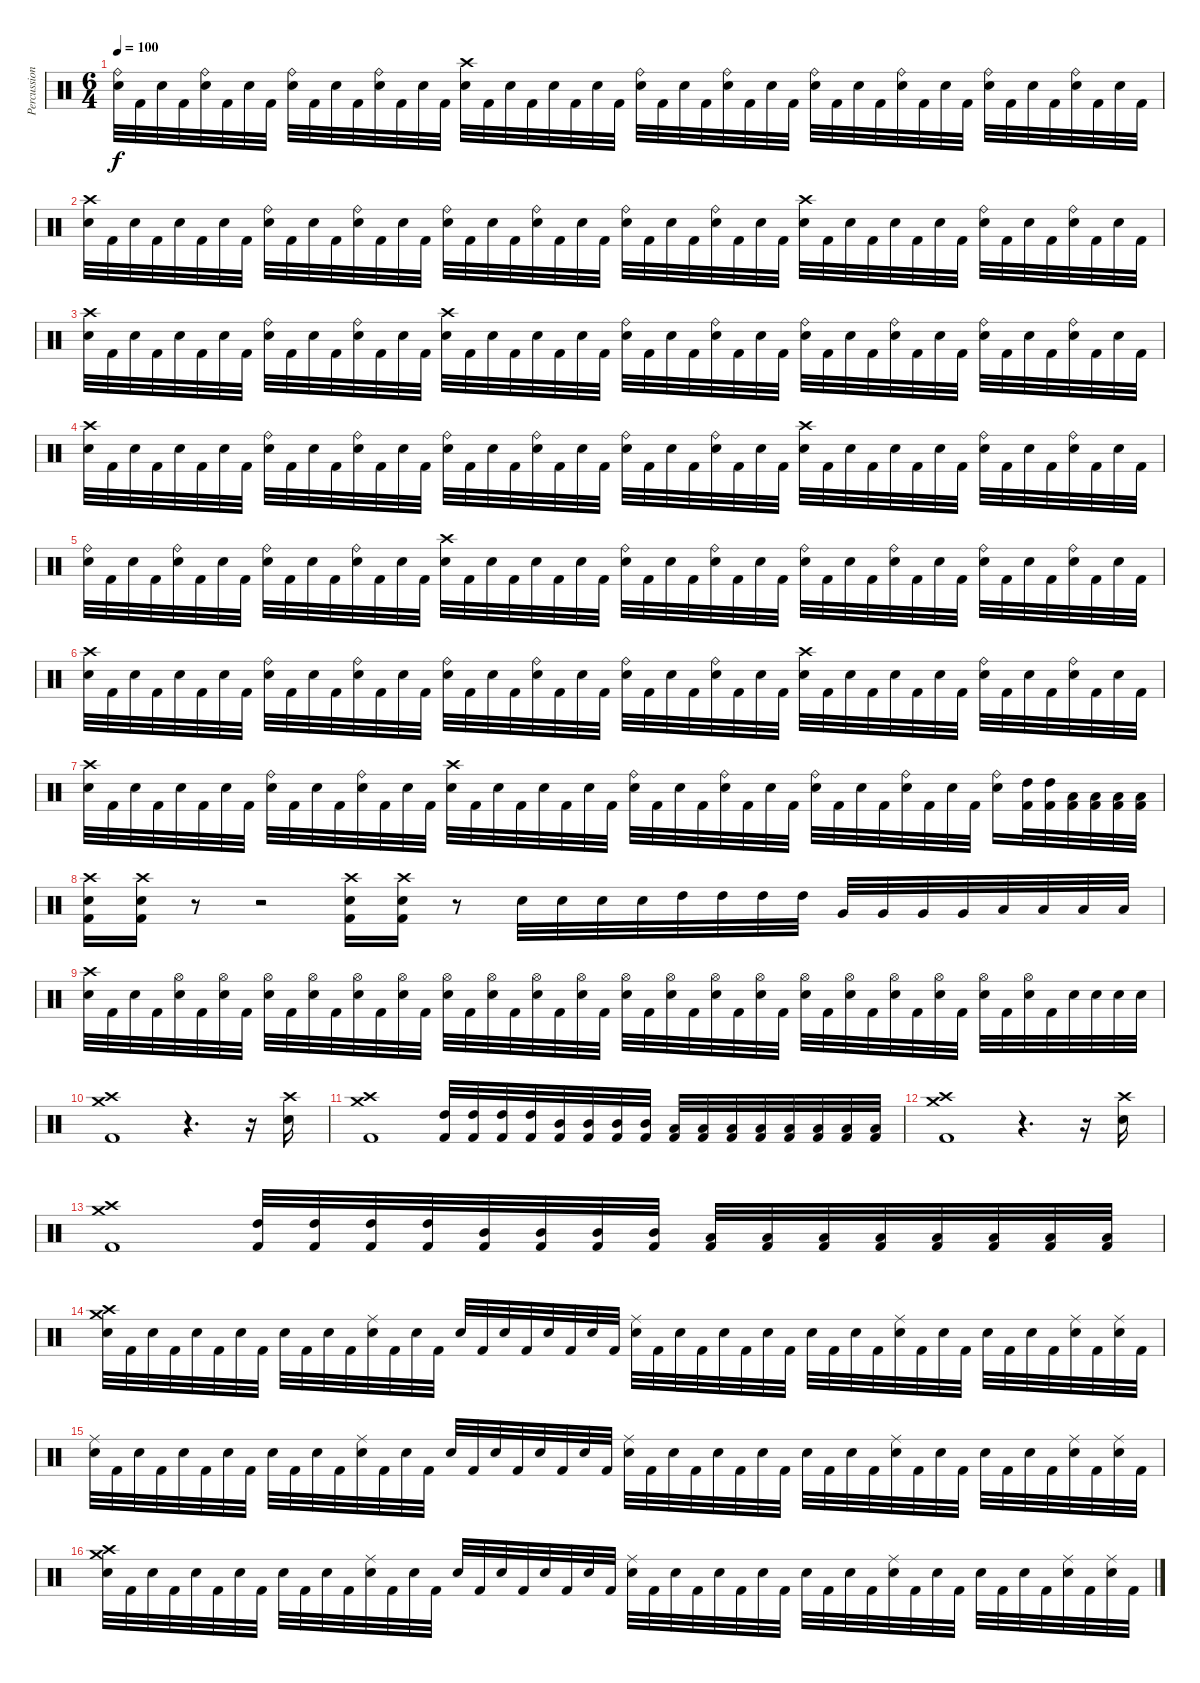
\track ("Percussion" "Percussion") {instrument percussion}
\staff {score}
\articulation defaults
\ts (6 4)
\tempo 100
\clef neutral
\ks c
("Ride (bell)" "Electric Snare (hit)").32{dy f} "Kick (hit) 2".32 "Electric Snare (hit)".32 "Kick (hit) 2".32 ("Ride (bell)" "Electric Snare (hit)").32 "Kick (hit) 2".32 "Electric Snare (hit)".32 "Kick (hit) 2".32 ("Ride (bell)" "Electric Snare (hit)").32 "Kick (hit) 2".32 "Electric Snare (hit)".32 "Kick (hit) 2".32 ("Ride (bell)" "Electric Snare (hit)").32 "Kick (hit) 2".32 "Electric Snare (hit)".32 "Kick (hit) 2".32 ("Crash high (hit)" "Electric Snare (hit)").32 "Kick (hit) 2".32 "Electric Snare (hit)".32 "Kick (hit) 2".32 "Electric Snare (hit)".32 "Kick (hit) 2".32 "Electric Snare (hit)".32 "Kick (hit) 2".32 ("Ride (bell)" "Electric Snare (hit)").32 "Kick (hit) 2".32 "Electric Snare (hit)".32 "Kick (hit) 2".32 ("Ride (bell)" "Electric Snare (hit)").32 "Kick (hit) 2".32 "Electric Snare (hit)".32 "Kick (hit) 2".32 ("Ride (bell)" "Electric Snare (hit)").32 "Kick (hit) 2".32 "Electric Snare (hit)".32 "Kick (hit) 2".32 ("Ride (bell)" "Electric Snare (hit)").32 "Kick (hit) 2".32 "Electric Snare (hit)".32 "Kick (hit) 2".32 ("Ride (bell)" "Electric Snare (hit)").32 "Kick (hit) 2".32 "Electric Snare (hit)".32 "Kick (hit) 2".32 ("Ride (bell)" "Electric Snare (hit)").32 "Kick (hit) 2".32 "Electric Snare (hit)".32 "Kick (hit) 2".32 |
("Crash high (hit)" "Electric Snare (hit)").32 "Kick (hit) 2".32 "Electric Snare (hit)".32 "Kick (hit) 2".32 "Electric Snare (hit)".32 "Kick (hit) 2".32 "Electric Snare (hit)".32 "Kick (hit) 2".32 ("Ride (bell)" "Electric Snare (hit)").32 "Kick (hit) 2".32 "Electric Snare (hit)".32 "Kick (hit) 2".32 ("Ride (bell)" "Electric Snare (hit)").32 "Kick (hit) 2".32 "Electric Snare (hit)".32 "Kick (hit) 2".32 ("Ride (bell)" "Electric Snare (hit)").32 "Kick (hit) 2".32 "Electric Snare (hit)".32 "Kick (hit) 2".32 ("Ride (bell)" "Electric Snare (hit)").32 "Kick (hit) 2".32 "Electric Snare (hit)".32 "Kick (hit) 2".32 ("Ride (bell)" "Electric Snare (hit)").32 "Kick (hit) 2".32 "Electric Snare (hit)".32 "Kick (hit) 2".32 ("Ride (bell)" "Electric Snare (hit)").32 "Kick (hit) 2".32 "Electric Snare (hit)".32 "Kick (hit) 2".32 ("Crash high (hit)" "Electric Snare (hit)").32 "Kick (hit) 2".32 "Electric Snare (hit)".32 "Kick (hit) 2".32 "Electric Snare (hit)".32 "Kick (hit) 2".32 "Electric Snare (hit)".32 "Kick (hit) 2".32 ("Ride (bell)" "Electric Snare (hit)").32 "Kick (hit) 2".32 "Electric Snare (hit)".32 "Kick (hit) 2".32 ("Ride (bell)" "Electric Snare (hit)").32 "Kick (hit) 2".32 "Electric Snare (hit)".32 "Kick (hit) 2".32 |
("Crash high (hit)" "Electric Snare (hit)").32 "Kick (hit) 2".32 "Electric Snare (hit)".32 "Kick (hit) 2".32 "Electric Snare (hit)".32 "Kick (hit) 2".32 "Electric Snare (hit)".32 "Kick (hit) 2".32 ("Ride (bell)" "Electric Snare (hit)").32 "Kick (hit) 2".32 "Electric Snare (hit)".32 "Kick (hit) 2".32 ("Ride (bell)" "Electric Snare (hit)").32 "Kick (hit) 2".32 "Electric Snare (hit)".32 "Kick (hit) 2".32 ("Crash high (hit)" "Electric Snare (hit)").32 "Kick (hit) 2".32 "Electric Snare (hit)".32 "Kick (hit) 2".32 "Electric Snare (hit)".32 "Kick (hit) 2".32 "Electric Snare (hit)".32 "Kick (hit) 2".32 ("Ride (bell)" "Electric Snare (hit)").32 "Kick (hit) 2".32 "Electric Snare (hit)".32 "Kick (hit) 2".32 ("Ride (bell)" "Electric Snare (hit)").32 "Kick (hit) 2".32 "Electric Snare (hit)".32 "Kick (hit) 2".32 ("Ride (bell)" "Electric Snare (hit)").32 "Kick (hit) 2".32 "Electric Snare (hit)".32 "Kick (hit) 2".32 ("Ride (bell)" "Electric Snare (hit)").32 "Kick (hit) 2".32 "Electric Snare (hit)".32 "Kick (hit) 2".32 ("Ride (bell)" "Electric Snare (hit)").32 "Kick (hit) 2".32 "Electric Snare (hit)".32 "Kick (hit) 2".32 ("Ride (bell)" "Electric Snare (hit)").32 "Kick (hit) 2".32 "Electric Snare (hit)".32 "Kick (hit) 2".32 |
("Crash high (hit)" "Electric Snare (hit)").32 "Kick (hit) 2".32 "Electric Snare (hit)".32 "Kick (hit) 2".32 "Electric Snare (hit)".32 "Kick (hit) 2".32 "Electric Snare (hit)".32 "Kick (hit) 2".32 ("Ride (bell)" "Electric Snare (hit)").32 "Kick (hit) 2".32 "Electric Snare (hit)".32 "Kick (hit) 2".32 ("Ride (bell)" "Electric Snare (hit)").32 "Kick (hit) 2".32 "Electric Snare (hit)".32 "Kick (hit) 2".32 ("Ride (bell)" "Electric Snare (hit)").32 "Kick (hit) 2".32 "Electric Snare (hit)".32 "Kick (hit) 2".32 ("Ride (bell)" "Electric Snare (hit)").32 "Kick (hit) 2".32 "Electric Snare (hit)".32 "Kick (hit) 2".32 ("Ride (bell)" "Electric Snare (hit)").32 "Kick (hit) 2".32 "Electric Snare (hit)".32 "Kick (hit) 2".32 ("Ride (bell)" "Electric Snare (hit)").32 "Kick (hit) 2".32 "Electric Snare (hit)".32 "Kick (hit) 2".32 ("Crash high (hit)" "Electric Snare (hit)").32 "Kick (hit) 2".32 "Electric Snare (hit)".32 "Kick (hit) 2".32 "Electric Snare (hit)".32 "Kick (hit) 2".32 "Electric Snare (hit)".32 "Kick (hit) 2".32 ("Ride (bell)" "Electric Snare (hit)").32 "Kick (hit) 2".32 "Electric Snare (hit)".32 "Kick (hit) 2".32 ("Ride (bell)" "Electric Snare (hit)").32 "Kick (hit) 2".32 "Electric Snare (hit)".32 "Kick (hit) 2".32 |
("Ride (bell)" "Electric Snare (hit)").32 "Kick (hit) 2".32 "Electric Snare (hit)".32 "Kick (hit) 2".32 ("Ride (bell)" "Electric Snare (hit)").32 "Kick (hit) 2".32 "Electric Snare (hit)".32 "Kick (hit) 2".32 ("Ride (bell)" "Electric Snare (hit)").32 "Kick (hit) 2".32 "Electric Snare (hit)".32 "Kick (hit) 2".32 ("Ride (bell)" "Electric Snare (hit)").32 "Kick (hit) 2".32 "Electric Snare (hit)".32 "Kick (hit) 2".32 ("Crash high (hit)" "Electric Snare (hit)").32 "Kick (hit) 2".32 "Electric Snare (hit)".32 "Kick (hit) 2".32 "Electric Snare (hit)".32 "Kick (hit) 2".32 "Electric Snare (hit)".32 "Kick (hit) 2".32 ("Ride (bell)" "Electric Snare (hit)").32 "Kick (hit) 2".32 "Electric Snare (hit)".32 "Kick (hit) 2".32 ("Ride (bell)" "Electric Snare (hit)").32 "Kick (hit) 2".32 "Electric Snare (hit)".32 "Kick (hit) 2".32 ("Ride (bell)" "Electric Snare (hit)").32 "Kick (hit) 2".32 "Electric Snare (hit)".32 "Kick (hit) 2".32 ("Ride (bell)" "Electric Snare (hit)").32 "Kick (hit) 2".32 "Electric Snare (hit)".32 "Kick (hit) 2".32 ("Ride (bell)" "Electric Snare (hit)").32 "Kick (hit) 2".32 "Electric Snare (hit)".32 "Kick (hit) 2".32 ("Ride (bell)" "Electric Snare (hit)").32 "Kick (hit) 2".32 "Electric Snare (hit)".32 "Kick (hit) 2".32 |
("Crash high (hit)" "Electric Snare (hit)").32 "Kick (hit) 2".32 "Electric Snare (hit)".32 "Kick (hit) 2".32 "Electric Snare (hit)".32 "Kick (hit) 2".32 "Electric Snare (hit)".32 "Kick (hit) 2".32 ("Ride (bell)" "Electric Snare (hit)").32 "Kick (hit) 2".32 "Electric Snare (hit)".32 "Kick (hit) 2".32 ("Ride (bell)" "Electric Snare (hit)").32 "Kick (hit) 2".32 "Electric Snare (hit)".32 "Kick (hit) 2".32 ("Ride (bell)" "Electric Snare (hit)").32 "Kick (hit) 2".32 "Electric Snare (hit)".32 "Kick (hit) 2".32 ("Ride (bell)" "Electric Snare (hit)").32 "Kick (hit) 2".32 "Electric Snare (hit)".32 "Kick (hit) 2".32 ("Ride (bell)" "Electric Snare (hit)").32 "Kick (hit) 2".32 "Electric Snare (hit)".32 "Kick (hit) 2".32 ("Ride (bell)" "Electric Snare (hit)").32 "Kick (hit) 2".32 "Electric Snare (hit)".32 "Kick (hit) 2".32 ("Crash high (hit)" "Electric Snare (hit)").32 "Kick (hit) 2".32 "Electric Snare (hit)".32 "Kick (hit) 2".32 "Electric Snare (hit)".32 "Kick (hit) 2".32 "Electric Snare (hit)".32 "Kick (hit) 2".32 ("Ride (bell)" "Electric Snare (hit)").32 "Kick (hit) 2".32 "Electric Snare (hit)".32 "Kick (hit) 2".32 ("Ride (bell)" "Electric Snare (hit)").32 "Kick (hit) 2".32 "Electric Snare (hit)".32 "Kick (hit) 2".32 |
("Crash high (hit)" "Electric Snare (hit)").32 "Kick (hit) 2".32 "Electric Snare (hit)".32 "Kick (hit) 2".32 "Electric Snare (hit)".32 "Kick (hit) 2".32 "Electric Snare (hit)".32 "Kick (hit) 2".32 ("Ride (bell)" "Electric Snare (hit)").32 "Kick (hit) 2".32 "Electric Snare (hit)".32 "Kick (hit) 2".32 ("Ride (bell)" "Electric Snare (hit)").32 "Kick (hit) 2".32 "Electric Snare (hit)".32 "Kick (hit) 2".32 ("Crash high (hit)" "Electric Snare (hit)").32 "Kick (hit) 2".32 "Electric Snare (hit)".32 "Kick (hit) 2".32 "Electric Snare (hit)".32 "Kick (hit) 2".32 "Electric Snare (hit)".32 "Kick (hit) 2".32 ("Ride (bell)" "Electric Snare (hit)").32 "Kick (hit) 2".32 "Electric Snare (hit)".32 "Kick (hit) 2".32 ("Ride (bell)" "Electric Snare (hit)").32 "Kick (hit) 2".32 "Electric Snare (hit)".32 "Kick (hit) 2".32 ("Ride (bell)" "Electric Snare (hit)").32 "Kick (hit) 2".32 "Electric Snare (hit)".32 "Kick (hit) 2".32 ("Ride (bell)" "Electric Snare (hit)").32 "Kick (hit) 2".32 "Electric Snare (hit)".32 "Kick (hit) 2".32 ("Ride (bell)" "Electric Snare (hit)").16 ("High Tom (hit)" "Kick (hit) 2").32 ("High Tom (hit)" "Kick (hit) 2").32 ("Low Tom (hit)" "Kick (hit) 2").32 ("Low Tom (hit)" "Kick (hit) 2").32 ("Low Floor Tom (hit)" "Kick (hit) 2").32 ("Low Floor Tom (hit)" "Kick (hit) 2").32 |
("Crash high (hit)" "Electric Snare (hit)" "Kick (hit) 2").16 ("Crash high (hit)" "Electric Snare (hit)" "Kick (hit) 2").16 r.8 r.2 ("Crash high (hit)" "Electric Snare (hit)" "Kick (hit) 2").16 ("Crash high (hit)" "Electric Snare (hit)" "Kick (hit) 2").16 r.8 "Electric Snare (hit)".32 "Electric Snare (hit)".32 "Electric Snare (hit)".32 "Electric Snare (hit)".32 "High Tom (hit)".32 "High Tom (hit)".32 "High Tom (hit)".32 "High Tom (hit)".32 "Very Low Tom (hit)".32 "Very Low Tom (hit)".32 "Very Low Tom (hit)".32 "Very Low Tom (hit)".32 "Low Floor Tom (hit)".32 "Low Floor Tom (hit)".32 "Low Tom (hit)".32 "Low Tom (hit)".32 |
("Crash high (hit)" "Electric Snare (hit)").32 "Kick (hit) 2".32 "Electric Snare (hit)".32 "Kick (hit) 2".32 ("Hi-Hat (open)" "Electric Snare (hit)").32 "Kick (hit) 2".32 ("Hi-Hat (open)" "Electric Snare (hit)").32 "Kick (hit) 2".32 ("Hi-Hat (open)" "Electric Snare (hit)").32 "Kick (hit) 2".32 ("Hi-Hat (open)" "Electric Snare (hit)").32 "Kick (hit) 2".32 ("Hi-Hat (open)" "Electric Snare (hit)").32 "Kick (hit) 2".32 ("Hi-Hat (open)" "Electric Snare (hit)").32 "Kick (hit) 2".32 ("Hi-Hat (open)" "Electric Snare (hit)").32 "Kick (hit) 2".32 ("Hi-Hat (open)" "Electric Snare (hit)").32 "Kick (hit) 2".32 ("Hi-Hat (open)" "Electric Snare (hit)").32 "Kick (hit) 2".32 ("Hi-Hat (open)" "Electric Snare (hit)").32 "Kick (hit) 2".32 ("Hi-Hat (open)" "Electric Snare (hit)").32 "Kick (hit) 2".32 ("Hi-Hat (open)" "Electric Snare (hit)").32 "Kick (hit) 2".32 ("Hi-Hat (open)" "Electric Snare (hit)").32 "Kick (hit) 2".32 ("Hi-Hat (open)" "Electric Snare (hit)").32 "Kick (hit) 2".32 ("Hi-Hat (open)" "Electric Snare (hit)").32 "Kick (hit) 2".32 ("Hi-Hat (open)" "Electric Snare (hit)").32 "Kick (hit) 2".32 ("Hi-Hat (open)" "Electric Snare (hit)").32 "Kick (hit) 2".32 ("Hi-Hat (open)" "Electric Snare (hit)").32 "Kick (hit) 2".32 ("Hi-Hat (open)" "Electric Snare (hit)").32 "Kick (hit) 2".32 ("Hi-Hat (open)" "Electric Snare (hit)").32 "Kick (hit) 2".32 "Electric Snare (hit)".32 "Electric Snare (hit)".32 "Electric Snare (hit)".32 "Electric Snare (hit)".32 |
("Crash high (hit)" "Crash medium (hit)" "Kick (hit) 2").1 r.4{d} r.16 ("Crash high (hit)" "Electric Snare (hit)").16 |
("Crash high (hit)" "Crash medium (hit)" "Kick (hit) 2").1 ("High Tom (hit)" "Kick (hit) 2").32 ("High Tom (hit)" "Kick (hit) 2").32 ("High Tom (hit)" "Kick (hit) 2").32 ("High Tom (hit)" "Kick (hit) 2").32 ("Mid Tom (hit)" "Kick (hit) 2").32 ("Mid Tom (hit)" "Kick (hit) 2").32 ("Mid Tom (hit)" "Kick (hit) 2").32 ("Mid Tom (hit)" "Kick (hit) 2").32 ("Low Tom (hit)" "Kick (hit) 2").32 ("Low Tom (hit)" "Kick (hit) 2").32 ("Low Tom (hit)" "Kick (hit) 2").32 ("Low Tom (hit)" "Kick (hit) 2").32 ("Low Tom (hit)" "Kick (hit) 2").32 ("Low Tom (hit)" "Kick (hit) 2").32 ("Low Floor Tom (hit)" "Kick (hit) 2").32 ("Low Floor Tom (hit)" "Kick (hit) 2").32 |
("Crash high (hit)" "Crash medium (hit)" "Kick (hit) 2").1 r.4{d} r.16 ("Crash high (hit)" "Electric Snare (hit)").16 |
("Crash high (hit)" "Crash medium (hit)" "Kick (hit) 2").1 ("High Tom (hit)" "Kick (hit) 2").32 ("High Tom (hit)" "Kick (hit) 2").32 ("High Tom (hit)" "Kick (hit) 2").32 ("High Tom (hit)" "Kick (hit) 2").32 ("Mid Tom (hit)" "Kick (hit) 2").32 ("Mid Tom (hit)" "Kick (hit) 2").32 ("Mid Tom (hit)" "Kick (hit) 2").32 ("Mid Tom (hit)" "Kick (hit) 2").32 ("Low Tom (hit)" "Kick (hit) 2").32 ("Low Tom (hit)" "Kick (hit) 2").32 ("Low Tom (hit)" "Kick (hit) 2").32 ("Low Tom (hit)" "Kick (hit) 2").32 ("Low Tom (hit)" "Kick (hit) 2").32 ("Low Tom (hit)" "Kick (hit) 2").32 ("Low Floor Tom (hit)" "Kick (hit) 2").32 ("Low Floor Tom (hit)" "Kick (hit) 2").32 |
("Crash high (hit)" "Crash medium (hit)" "Electric Snare (hit)").32 "Kick (hit) 2".32 "Electric Snare (hit)".32 "Kick (hit) 2".32 "Electric Snare (hit)".32 "Kick (hit) 2".32 "Electric Snare (hit)".32 "Kick (hit) 2".32 "Electric Snare (hit)".32 "Kick (hit) 2".32 "Electric Snare (hit)".32 "Kick (hit) 2".32 ("Ride (middle)" "Electric Snare (hit)").32 "Kick (hit) 2".32 "Electric Snare (hit)".32 "Kick (hit) 2".32 "Electric Snare (hit)".32 "Kick (hit) 2".32 "Electric Snare (hit)".32 "Kick (hit) 2".32 "Electric Snare (hit)".32 "Kick (hit) 2".32 "Electric Snare (hit)".32 "Kick (hit) 2".32 ("Ride (middle)" "Electric Snare (hit)").32 "Kick (hit) 2".32 "Electric Snare (hit)".32 "Kick (hit) 2".32 "Electric Snare (hit)".32 "Kick (hit) 2".32 "Electric Snare (hit)".32 "Kick (hit) 2".32 "Electric Snare (hit)".32 "Kick (hit) 2".32 "Electric Snare (hit)".32 "Kick (hit) 2".32 ("Ride (middle)" "Electric Snare (hit)").32 "Kick (hit) 2".32 "Electric Snare (hit)".32 "Kick (hit) 2".32 "Electric Snare (hit)".32 "Kick (hit) 2".32 "Electric Snare (hit)".32 "Kick (hit) 2".32 ("Ride (middle)" "Electric Snare (hit)").32 "Kick (hit) 2".32 ("Ride (middle)" "Electric Snare (hit)").32 "Kick (hit) 2".32 |
("Ride (middle)" "Electric Snare (hit)").32 "Kick (hit) 2".32 "Electric Snare (hit)".32 "Kick (hit) 2".32 "Electric Snare (hit)".32 "Kick (hit) 2".32 "Electric Snare (hit)".32 "Kick (hit) 2".32 "Electric Snare (hit)".32 "Kick (hit) 2".32 "Electric Snare (hit)".32 "Kick (hit) 2".32 ("Ride (middle)" "Electric Snare (hit)").32 "Kick (hit) 2".32 "Electric Snare (hit)".32 "Kick (hit) 2".32 "Electric Snare (hit)".32 "Kick (hit) 2".32 "Electric Snare (hit)".32 "Kick (hit) 2".32 "Electric Snare (hit)".32 "Kick (hit) 2".32 "Electric Snare (hit)".32 "Kick (hit) 2".32 ("Ride (middle)" "Electric Snare (hit)").32 "Kick (hit) 2".32 "Electric Snare (hit)".32 "Kick (hit) 2".32 "Electric Snare (hit)".32 "Kick (hit) 2".32 "Electric Snare (hit)".32 "Kick (hit) 2".32 "Electric Snare (hit)".32 "Kick (hit) 2".32 "Electric Snare (hit)".32 "Kick (hit) 2".32 ("Ride (middle)" "Electric Snare (hit)").32 "Kick (hit) 2".32 "Electric Snare (hit)".32 "Kick (hit) 2".32 "Electric Snare (hit)".32 "Kick (hit) 2".32 "Electric Snare (hit)".32 "Kick (hit) 2".32 ("Ride (middle)" "Electric Snare (hit)").32 "Kick (hit) 2".32 ("Ride (middle)" "Electric Snare (hit)").32 "Kick (hit) 2".32 |
("Crash high (hit)" "Crash medium (hit)" "Electric Snare (hit)").32 "Kick (hit) 2".32 "Electric Snare (hit)".32 "Kick (hit) 2".32 "Electric Snare (hit)".32 "Kick (hit) 2".32 "Electric Snare (hit)".32 "Kick (hit) 2".32 "Electric Snare (hit)".32 "Kick (hit) 2".32 "Electric Snare (hit)".32 "Kick (hit) 2".32 ("Ride (middle)" "Electric Snare (hit)").32 "Kick (hit) 2".32 "Electric Snare (hit)".32 "Kick (hit) 2".32 "Electric Snare (hit)".32 "Kick (hit) 2".32 "Electric Snare (hit)".32 "Kick (hit) 2".32 "Electric Snare (hit)".32 "Kick (hit) 2".32 "Electric Snare (hit)".32 "Kick (hit) 2".32 ("Ride (middle)" "Electric Snare (hit)").32 "Kick (hit) 2".32 "Electric Snare (hit)".32 "Kick (hit) 2".32 "Electric Snare (hit)".32 "Kick (hit) 2".32 "Electric Snare (hit)".32 "Kick (hit) 2".32 "Electric Snare (hit)".32 "Kick (hit) 2".32 "Electric Snare (hit)".32 "Kick (hit) 2".32 ("Ride (middle)" "Electric Snare (hit)").32 "Kick (hit) 2".32 "Electric Snare (hit)".32 "Kick (hit) 2".32 "Electric Snare (hit)".32 "Kick (hit) 2".32 "Electric Snare (hit)".32 "Kick (hit) 2".32 ("Ride (middle)" "Electric Snare (hit)").32 "Kick (hit) 2".32 ("Ride (middle)" "Electric Snare (hit)").32 "Kick (hit) 2".32
